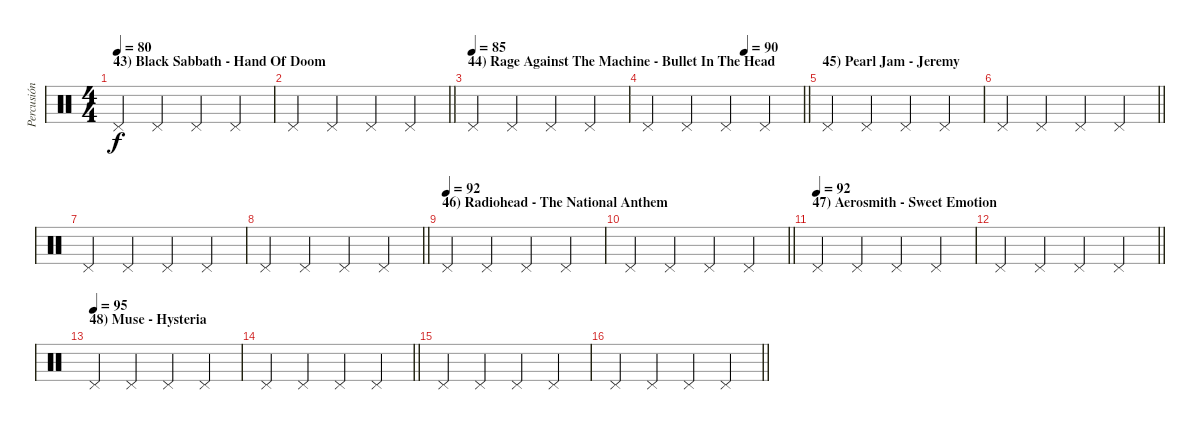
\track ("Percusión" "Percusión") {instrument percussion}
\staff {score}
\articulation defaults
\ts (4 4)
\section ("" "43) Black Sabbath - Hand Of Doom")
\tempo 80
\clef neutral
\ks c "Pedal Hi-Hat (hit)".4{dy f} "Pedal Hi-Hat (hit)".4 "Pedal Hi-Hat (hit)".4 "Pedal Hi-Hat (hit)".4
|
\barLineRight lightlight "Pedal Hi-Hat (hit)".4 "Pedal Hi-Hat (hit)".4 "Pedal Hi-Hat (hit)".4 "Pedal Hi-Hat (hit)".4
|
\section ("" "44) Rage Against The Machine - Bullet In The Head")
\tempo (85)
"Pedal Hi-Hat (hit)".4 "Pedal Hi-Hat (hit)".4 "Pedal Hi-Hat (hit)".4 "Pedal Hi-Hat (hit)".4 |
\tempo (90 0.625)
\barLineRight lightlight "Pedal Hi-Hat (hit)".4 "Pedal Hi-Hat (hit)".4 "Pedal Hi-Hat (hit)".4 "Pedal Hi-Hat (hit)".4
|
\section ("" "45) Pearl Jam - Jeremy")
"Pedal Hi-Hat (hit)".4 "Pedal Hi-Hat (hit)".4 "Pedal Hi-Hat (hit)".4 "Pedal Hi-Hat (hit)".4 |
\barLineRight lightlight "Pedal Hi-Hat (hit)".4 "Pedal Hi-Hat (hit)".4 "Pedal Hi-Hat (hit)".4 "Pedal Hi-Hat (hit)".4
|
"Pedal Hi-Hat (hit)".4 "Pedal Hi-Hat (hit)".4 "Pedal Hi-Hat (hit)".4 "Pedal Hi-Hat (hit)".4 |
\barLineRight lightlight "Pedal Hi-Hat (hit)".4 "Pedal Hi-Hat (hit)".4 "Pedal Hi-Hat (hit)".4 "Pedal Hi-Hat (hit)".4
|
\section ("" "46) Radiohead - The National Anthem")
\tempo (92)
"Pedal Hi-Hat (hit)".4 "Pedal Hi-Hat (hit)".4 "Pedal Hi-Hat (hit)".4 "Pedal Hi-Hat (hit)".4 |
\barLineRight lightlight "Pedal Hi-Hat (hit)".4 "Pedal Hi-Hat (hit)".4 "Pedal Hi-Hat (hit)".4 "Pedal Hi-Hat (hit)".4
|
\section ("" "47) Aerosmith - Sweet Emotion")
\tempo (92)
"Pedal Hi-Hat (hit)".4 "Pedal Hi-Hat (hit)".4 "Pedal Hi-Hat (hit)".4 "Pedal Hi-Hat (hit)".4 |
\barLineRight lightlight "Pedal Hi-Hat (hit)".4 "Pedal Hi-Hat (hit)".4 "Pedal Hi-Hat (hit)".4 "Pedal Hi-Hat (hit)".4
|
\section ("" "48) Muse - Hysteria")
\tempo (95)
"Pedal Hi-Hat (hit)".4 "Pedal Hi-Hat (hit)".4 "Pedal Hi-Hat (hit)".4 "Pedal Hi-Hat (hit)".4 |
\barLineRight lightlight "Pedal Hi-Hat (hit)".4 "Pedal Hi-Hat (hit)".4 "Pedal Hi-Hat (hit)".4 "Pedal Hi-Hat (hit)".4
|
"Pedal Hi-Hat (hit)".4 "Pedal Hi-Hat (hit)".4 "Pedal Hi-Hat (hit)".4 "Pedal Hi-Hat (hit)".4 |
\barLineRight lightlight "Pedal Hi-Hat (hit)".4 "Pedal Hi-Hat (hit)".4 "Pedal Hi-Hat (hit)".4 "Pedal Hi-Hat (hit)".4
